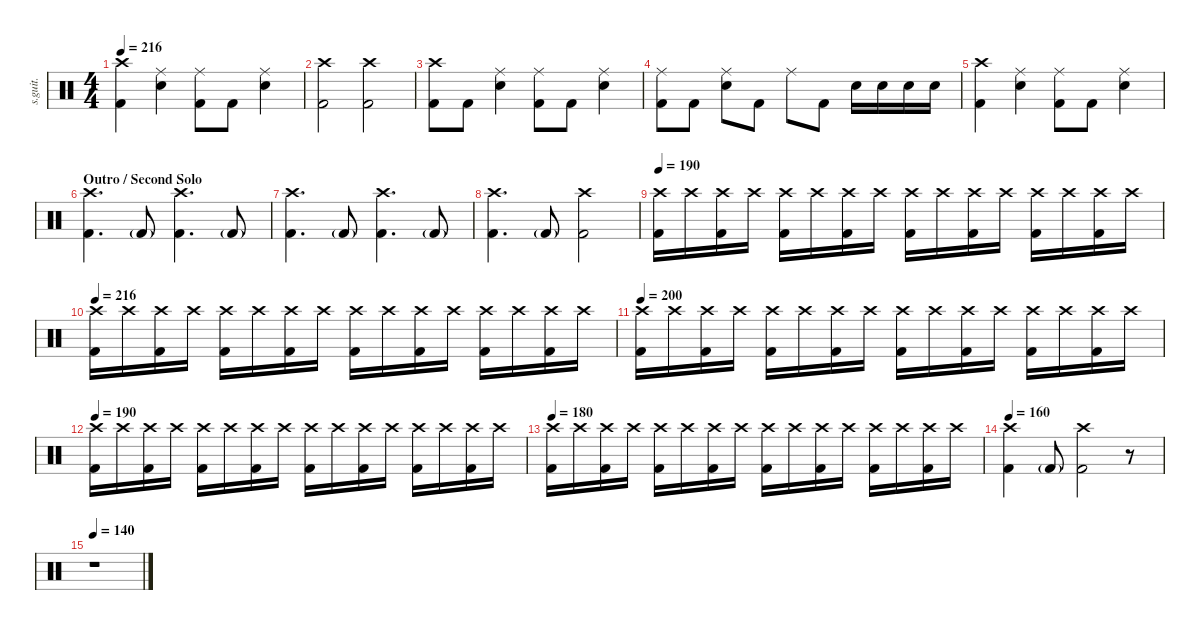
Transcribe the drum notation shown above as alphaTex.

\defaultSystemsLayout 4
\hideDynamics
\bracketExtendMode nobrackets
\track ("Jesus Bonehead | Drums" "s.guit.") {instrument percussion}
\staff {score}
\articulation defaults
\ts (4 4)
\tempo 216
\clef neutral
\ks c
("Crash high (hit)" "Kick (hit) 2").4{dy f} ("Ride (middle)" "Snare (hit) 2").4 ("Ride (middle)" "Kick (hit) 2").8 "Kick (hit) 2".8 ("Ride (middle)" "Snare (hit) 2").4 |
("Crash high (hit)" "Kick (hit) 2").2 ("Crash high (hit)" "Kick (hit) 2").2 |
("Crash high (hit)" "Kick (hit) 2").8 "Kick (hit) 2".8 ("Ride (middle)" "Snare (hit) 2").4 ("Ride (middle)" "Kick (hit) 2").8 "Kick (hit) 2".8 ("Ride (middle)" "Snare (hit) 2").4 |
("Ride (middle)" "Kick (hit) 2").8 "Kick (hit) 2".8 ("Ride (middle)" "Snare (hit) 2").8 "Kick (hit) 2".8 "Ride (middle)".8 "Kick (hit) 2".8 "Snare (hit) 2".16 "Snare (hit) 2".16 "Snare (hit) 2".16 "Snare (hit) 2".16 |
("Crash high (hit)" "Kick (hit) 2").4 ("Ride (middle)" "Snare (hit) 2").4 ("Ride (middle)" "Kick (hit) 2").8 "Kick (hit) 2".8 ("Ride (middle)" "Snare (hit) 2").4 |
\section ("" "Outro / Second Solo")
("Crash high (hit)" "Kick (hit) 2").4{d} "Kick (hit) 2"{g}.8 ("Crash high (hit)" "Kick (hit) 2").4{d} "Kick (hit) 2"{g}.8 |
("Crash high (hit)" "Kick (hit) 2").4{d} "Kick (hit) 2"{g}.8 ("Crash high (hit)" "Kick (hit) 2").4{d} "Kick (hit) 2"{g}.8 |
("Crash high (hit)" "Kick (hit) 2").4{d} "Kick (hit) 2"{g}.8 ("Crash high (hit)" "Kick (hit) 2").2 |
\tempo 190
("Crash high (hit)" "Kick (hit) 2").16 "Crash high (hit)".16 ("Crash high (hit)" "Kick (hit) 2").16 "Crash high (hit)".16 ("Crash high (hit)" "Kick (hit) 2").16 "Crash high (hit)".16 ("Crash high (hit)" "Kick (hit) 2").16 "Crash high (hit)".16 ("Crash high (hit)" "Kick (hit) 2").16 "Crash high (hit)".16 ("Crash high (hit)" "Kick (hit) 2").16 "Crash high (hit)".16 ("Crash high (hit)" "Kick (hit) 2").16 "Crash high (hit)".16 ("Crash high (hit)" "Kick (hit) 2").16 "Crash high (hit)".16 |
\tempo 216
("Crash high (hit)" "Kick (hit) 2").16 "Crash high (hit)".16 ("Crash high (hit)" "Kick (hit) 2").16 "Crash high (hit)".16 ("Crash high (hit)" "Kick (hit) 2").16 "Crash high (hit)".16 ("Crash high (hit)" "Kick (hit) 2").16 "Crash high (hit)".16 ("Crash high (hit)" "Kick (hit) 2").16 "Crash high (hit)".16 ("Crash high (hit)" "Kick (hit) 2").16 "Crash high (hit)".16 ("Crash high (hit)" "Kick (hit) 2").16 "Crash high (hit)".16 ("Crash high (hit)" "Kick (hit) 2").16 "Crash high (hit)".16 |
\tempo 200
("Crash high (hit)" "Kick (hit) 2").16 "Crash high (hit)".16 ("Crash high (hit)" "Kick (hit) 2").16 "Crash high (hit)".16 ("Crash high (hit)" "Kick (hit) 2").16 "Crash high (hit)".16 ("Crash high (hit)" "Kick (hit) 2").16 "Crash high (hit)".16 ("Crash high (hit)" "Kick (hit) 2").16 "Crash high (hit)".16 ("Crash high (hit)" "Kick (hit) 2").16 "Crash high (hit)".16 ("Crash high (hit)" "Kick (hit) 2").16 "Crash high (hit)".16 ("Crash high (hit)" "Kick (hit) 2").16 "Crash high (hit)".16 |
\tempo 190
("Crash high (hit)" "Kick (hit) 2").16 "Crash high (hit)".16 ("Crash high (hit)" "Kick (hit) 2").16 "Crash high (hit)".16 ("Crash high (hit)" "Kick (hit) 2").16 "Crash high (hit)".16 ("Crash high (hit)" "Kick (hit) 2").16 "Crash high (hit)".16 ("Crash high (hit)" "Kick (hit) 2").16 "Crash high (hit)".16 ("Crash high (hit)" "Kick (hit) 2").16 "Crash high (hit)".16 ("Crash high (hit)" "Kick (hit) 2").16 "Crash high (hit)".16 ("Crash high (hit)" "Kick (hit) 2").16 "Crash high (hit)".16 |
\tempo 180
("Crash high (hit)" "Kick (hit) 2").16 "Crash high (hit)".16 ("Crash high (hit)" "Kick (hit) 2").16 "Crash high (hit)".16 ("Crash high (hit)" "Kick (hit) 2").16 "Crash high (hit)".16 ("Crash high (hit)" "Kick (hit) 2").16 "Crash high (hit)".16 ("Crash high (hit)" "Kick (hit) 2").16 "Crash high (hit)".16 ("Crash high (hit)" "Kick (hit) 2").16 "Crash high (hit)".16 ("Crash high (hit)" "Kick (hit) 2").16 "Crash high (hit)".16 ("Crash high (hit)" "Kick (hit) 2").16 "Crash high (hit)".16 |
\tempo 160
("Crash high (hit)" "Kick (hit) 2").4 "Kick (hit) 2"{g}.8 ("Crash high (hit)" "Kick (hit) 2").2 r.8 |
\tempo 140
r.1
